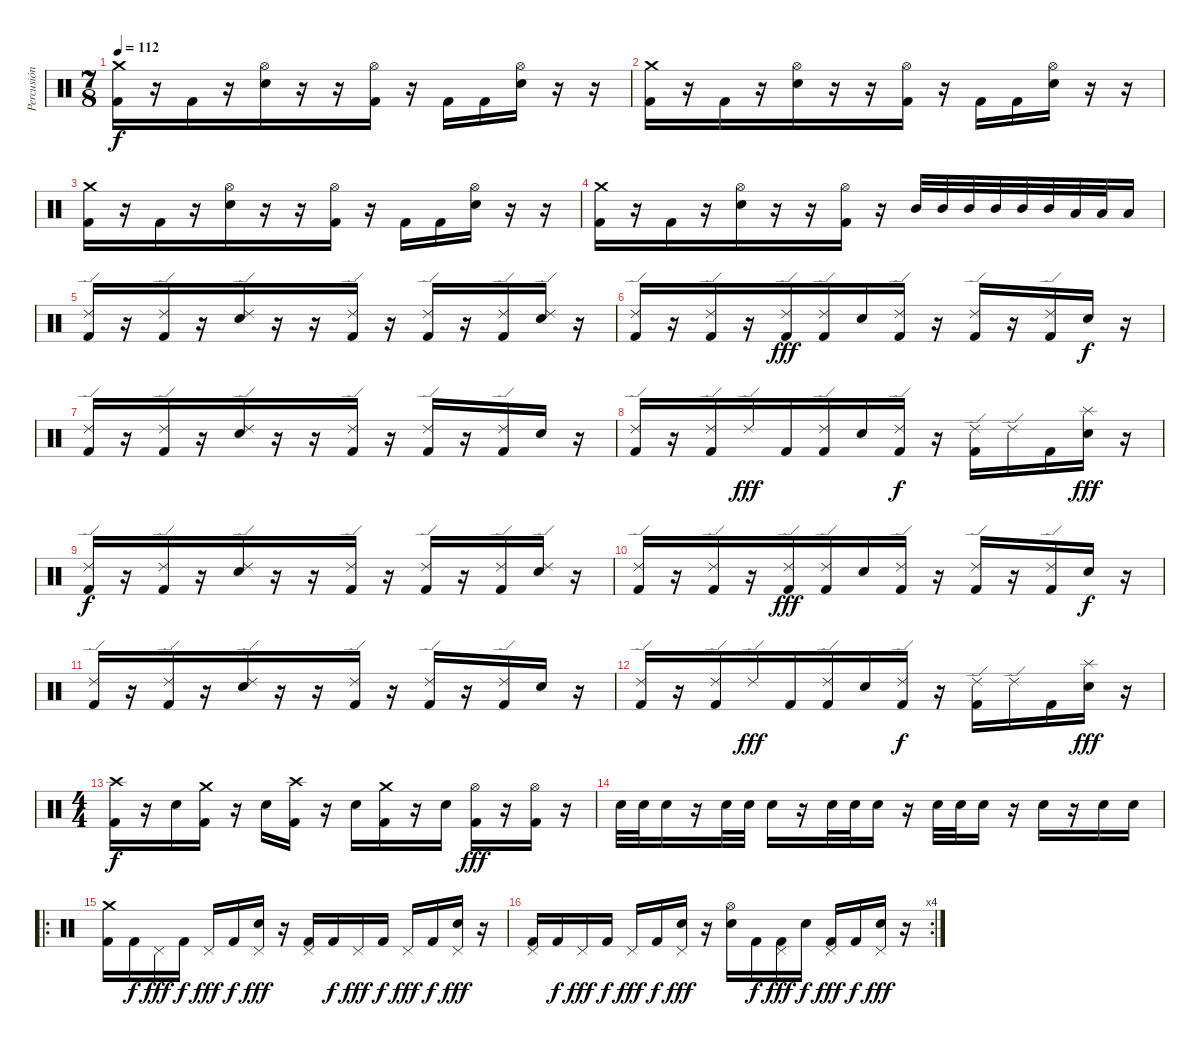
\track ("Percusión" "Percusión") {instrument percussion}
\staff {score}
\articulation defaults
\ts (7 8)
\tempo 112
\clef neutral
\ks c
("Crash medium (hit)" "Kick (hit) 2").16{dy f} r.16 "Kick (hit) 2".16 r.16 ("Hi-Hat (open)" "Electric Snare (hit)").16 r.16 r.16 ("Hi-Hat (open)" "Kick (hit) 2").16 r.16 "Kick (hit) 2".16 "Kick (hit) 2".16 ("Hi-Hat (open)" "Electric Snare (hit)").16 r.16 r.16 |
("Crash medium (hit)" "Kick (hit) 2").16 r.16 "Kick (hit) 2".16 r.16 ("Hi-Hat (open)" "Electric Snare (hit)").16 r.16 r.16 ("Hi-Hat (open)" "Kick (hit) 2").16 r.16 "Kick (hit) 2".16 "Kick (hit) 2".16 ("Hi-Hat (open)" "Electric Snare (hit)").16 r.16 r.16 |
("Crash medium (hit)" "Kick (hit) 2").16 r.16 "Kick (hit) 2".16 r.16 ("Hi-Hat (open)" "Electric Snare (hit)").16 r.16 r.16 ("Hi-Hat (open)" "Kick (hit) 2").16 r.16 "Kick (hit) 2".16 "Kick (hit) 2".16 ("Hi-Hat (open)" "Electric Snare (hit)").16 r.16 r.16 |
("Crash medium (hit)" "Kick (hit) 2").16 r.16 "Kick (hit) 2".16 r.16 ("Hi-Hat (open)" "Electric Snare (hit)").16 r.16 r.16 ("Hi-Hat (open)" "Kick (hit) 2").16 r.16 "Mid Tom (hit)".32 "Mid Tom (hit)".32 "Mid Tom (hit)".32 "Mid Tom (hit)".32 "Mid Tom (hit)".32 "Mid Tom (hit)".32 "Low Tom (hit)".32 "Low Tom (hit)".32 "Low Tom (hit)".16 |
("Ride (edge) 2" "Kick (hit) 2").16 r.16 ("Ride (edge) 2" "Kick (hit) 2").16 r.16 ("Ride (edge) 2" "Electric Snare (hit)").16 r.16 r.16 ("Ride (edge) 2" "Kick (hit) 2").16 r.16 ("Ride (edge) 2" "Kick (hit) 2").16 r.16 ("Ride (edge) 2" "Kick (hit) 2").16 ("Ride (edge) 2" "Electric Snare (hit)").16 r.16 |
("Ride (edge) 2" "Kick (hit) 2").16 r.16 ("Ride (edge) 2" "Kick (hit) 2").16 r.16 ("Ride (edge) 2" "Kick (hit) 2").16{dy fff} ("Ride (edge) 2" "Kick (hit) 2").16 "Electric Snare (hit)".16 ("Ride (edge) 2" "Kick (hit) 2").16 r.16 ("Ride (edge) 2" "Kick (hit) 2").16 r.16 ("Ride (edge) 2" "Kick (hit) 2").16 "Electric Snare (hit)".16{dy f} r.16 |
("Ride (edge) 2" "Kick (hit) 2").16 r.16 ("Ride (edge) 2" "Kick (hit) 2").16 r.16 ("Ride (edge) 2" "Electric Snare (hit)").16 r.16 r.16 ("Ride (edge) 2" "Kick (hit) 2").16 r.16 ("Ride (edge) 2" "Kick (hit) 2").16 r.16 ("Ride (edge) 2" "Kick (hit) 2").16 "Electric Snare (hit)".16 r.16 |
("Ride (edge) 2" "Kick (hit) 2").16 r.16 ("Ride (edge) 2" "Kick (hit) 2").16 "Ride (edge) 2".16{dy fff} "Kick (hit) 2".16 ("Ride (edge) 2" "Kick (hit) 2").16 "Electric Snare (hit)".16 ("Ride (edge) 2" "Kick (hit) 2").16{dy f} r.16 ("Ride (edge) 2" "Kick (hit) 2").16 "Ride (edge) 2".16 "Kick (hit) 2".16 ("Splash (hit)" "Electric Snare (hit)").16{dy fff} r.16 |
("Ride (edge) 2" "Kick (hit) 2").16{dy f} r.16 ("Ride (edge) 2" "Kick (hit) 2").16 r.16 ("Ride (edge) 2" "Electric Snare (hit)").16 r.16 r.16 ("Ride (edge) 2" "Kick (hit) 2").16 r.16 ("Ride (edge) 2" "Kick (hit) 2").16 r.16 ("Ride (edge) 2" "Kick (hit) 2").16 ("Ride (edge) 2" "Electric Snare (hit)").16 r.16 |
("Ride (edge) 2" "Kick (hit) 2").16 r.16 ("Ride (edge) 2" "Kick (hit) 2").16 r.16 ("Ride (edge) 2" "Kick (hit) 2").16{dy fff} ("Ride (edge) 2" "Kick (hit) 2").16 "Electric Snare (hit)".16 ("Ride (edge) 2" "Kick (hit) 2").16 r.16 ("Ride (edge) 2" "Kick (hit) 2").16 r.16 ("Ride (edge) 2" "Kick (hit) 2").16 "Electric Snare (hit)".16{dy f} r.16 |
("Ride (edge) 2" "Kick (hit) 2").16 r.16 ("Ride (edge) 2" "Kick (hit) 2").16 r.16 ("Ride (edge) 2" "Electric Snare (hit)").16 r.16 r.16 ("Ride (edge) 2" "Kick (hit) 2").16 r.16 ("Ride (edge) 2" "Kick (hit) 2").16 r.16 ("Ride (edge) 2" "Kick (hit) 2").16 "Electric Snare (hit)".16 r.16 |
("Ride (edge) 2" "Kick (hit) 2").16 r.16 ("Ride (edge) 2" "Kick (hit) 2").16 "Ride (edge) 2".16{dy fff} "Kick (hit) 2".16 ("Ride (edge) 2" "Kick (hit) 2").16 "Electric Snare (hit)".16 ("Ride (edge) 2" "Kick (hit) 2").16{dy f} r.16 ("Ride (edge) 2" "Kick (hit) 2").16 "Ride (edge) 2".16 "Kick (hit) 2".16 ("Splash (hit)" "Electric Snare (hit)").16{dy fff} r.16 |
\ts (4 4)
("Crash high (hit)" "Kick (hit) 2").16{dy f} r.16 "Electric Snare (hit)".16 ("Crash medium (hit)" "Kick (hit) 2").16 r.16 "Electric Snare (hit)".16 ("Crash high (hit)" "Kick (hit) 2").16 r.16 "Electric Snare (hit)".16 ("Crash medium (hit)" "Kick (hit) 2").16 r.16 "Electric Snare (hit)".16 ("Hi-Hat (open)" "Kick (hit) 2").16{dy fff} r.16 ("Hi-Hat (open)" "Kick (hit) 2").16 r.16 |
"Electric Snare (hit)".32 "Electric Snare (hit)".32 "Electric Snare (hit)".16 r.16 "Electric Snare (hit)".32 "Electric Snare (hit)".32 "Electric Snare (hit)".16 r.16 "Electric Snare (hit)".32 "Electric Snare (hit)".32 "Electric Snare (hit)".16 r.16 "Electric Snare (hit)".32 "Electric Snare (hit)".32 "Electric Snare (hit)".16 r.16 "Electric Snare (hit)".16 r.16 "Electric Snare (hit)".16 "Electric Snare (hit)".16 |
\ro
("Crash medium (hit)" "Kick (hit) 2").16 "Kick (hit) 2".16{dy f} "Pedal Hi-Hat (hit)".16{dy fff} "Kick (hit) 2".16{dy f} "Pedal Hi-Hat (hit)".16{dy fff} "Kick (hit) 2".16{dy f} ("Pedal Hi-Hat (hit)" "Electric Snare (hit)").16{dy fff} r.16 ("Pedal Hi-Hat (hit)" "Kick (hit) 2").16 "Kick (hit) 2".16{dy f} "Pedal Hi-Hat (hit)".16{dy fff} "Kick (hit) 2".16{dy f} "Pedal Hi-Hat (hit)".16{dy fff} "Kick (hit) 2".16{dy f} ("Pedal Hi-Hat (hit)" "Electric Snare (hit)").16{dy fff} r.16 |
\rc 4
("Pedal Hi-Hat (hit)" "Kick (hit) 2").16 "Kick (hit) 2".16{dy f} "Pedal Hi-Hat (hit)".16{dy fff} "Kick (hit) 2".16{dy f} "Pedal Hi-Hat (hit)".16{dy fff} "Kick (hit) 2".16{dy f} ("Pedal Hi-Hat (hit)" "Electric Snare (hit)").16{dy fff} r.16 ("Hi-Hat (open)" "Electric Snare (hit)").16 "Kick (hit) 2".16{dy f} ("Pedal Hi-Hat (hit)" "Kick (hit) 2").16{dy fff} "Electric Snare (hit)".16{dy f} ("Pedal Hi-Hat (hit)" "Kick (hit) 2").16{dy fff} "Kick (hit) 2".16{dy f} ("Pedal Hi-Hat (hit)" "Electric Snare (hit)").16{dy fff} r.16
